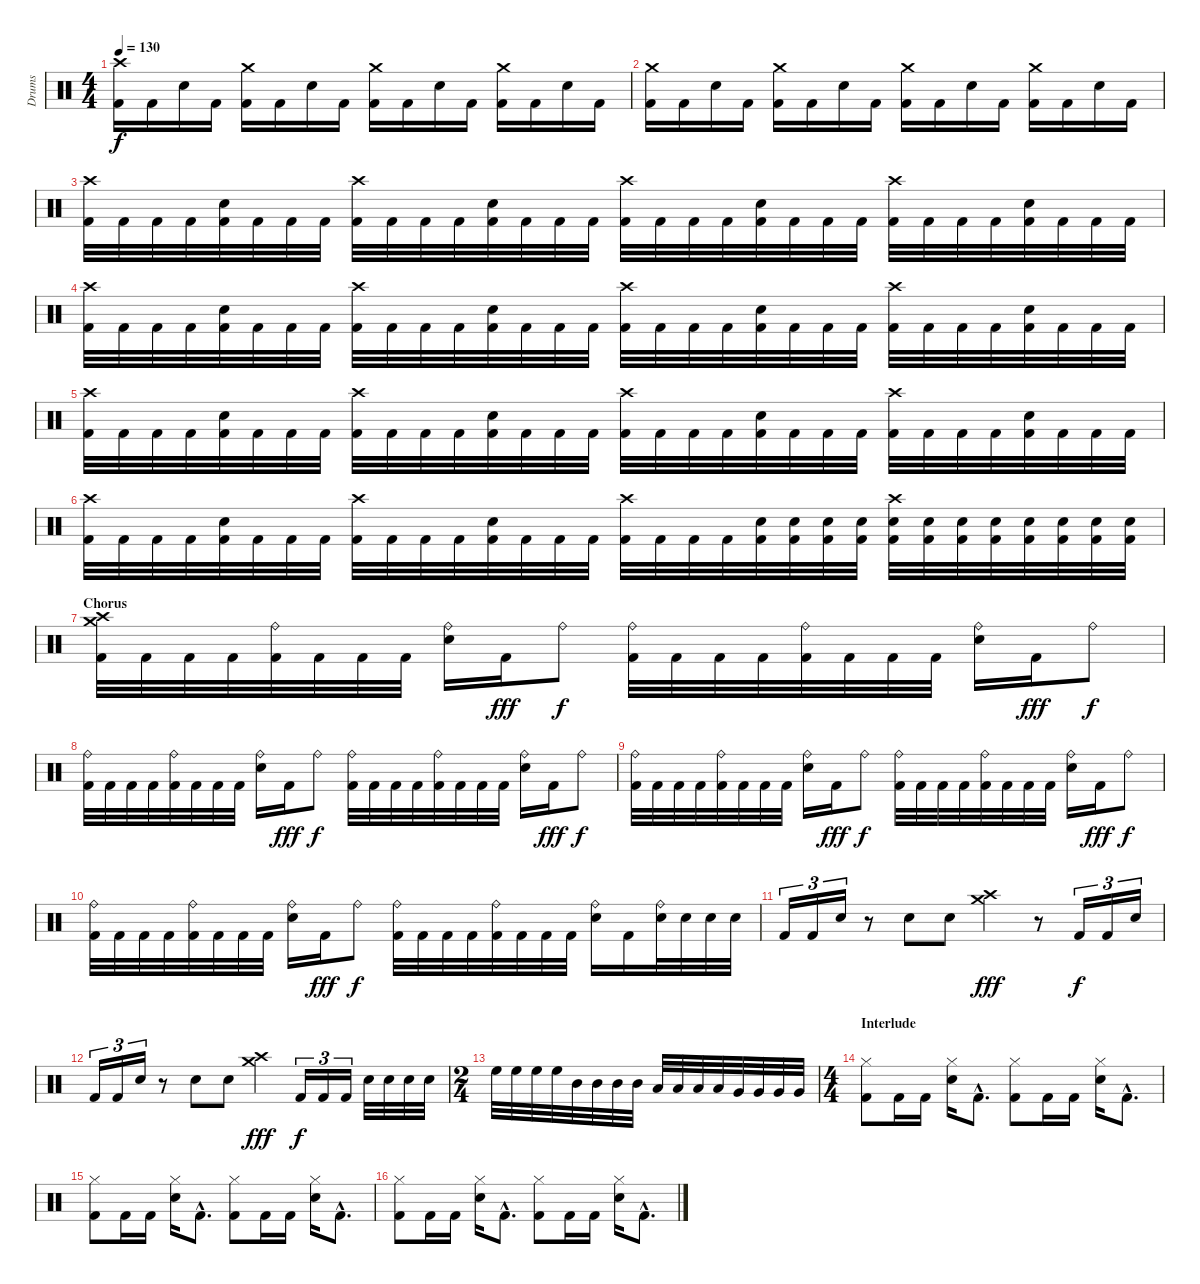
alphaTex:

\track ("Drums" "Drums") {instrument percussion}
\staff {score}
\articulation defaults
\ts (4 4)
\tempo 130
\clef neutral
\ks c
("Crash high (hit)" "Kick (hit) 2").16{dy f} "Kick (hit) 2".16 "Electric Snare (hit)".16 "Kick (hit) 2".16 ("Crash medium (hit)" "Kick (hit) 2").16 "Kick (hit) 2".16 "Electric Snare (hit)".16 "Kick (hit) 2".16 ("Crash medium (hit)" "Kick (hit) 2").16 "Kick (hit) 2".16 "Electric Snare (hit)".16 "Kick (hit) 2".16 ("Crash medium (hit)" "Kick (hit) 2").16 "Kick (hit) 2".16 "Electric Snare (hit)".16 "Kick (hit) 2".16 |
("Crash medium (hit)" "Kick (hit) 2").16 "Kick (hit) 2".16 "Electric Snare (hit)".16 "Kick (hit) 2".16 ("Crash medium (hit)" "Kick (hit) 2").16 "Kick (hit) 2".16 "Electric Snare (hit)".16 "Kick (hit) 2".16 ("Crash medium (hit)" "Kick (hit) 2").16 "Kick (hit) 2".16 "Electric Snare (hit)".16 "Kick (hit) 2".16 ("Crash medium (hit)" "Kick (hit) 2").16 "Kick (hit) 2".16 "Electric Snare (hit)".16 "Kick (hit) 2".16 |
("Crash high (hit)" "Kick (hit) 2").32 "Kick (hit) 2".32 "Kick (hit) 2".32 "Kick (hit) 2".32 ("Electric Snare (hit)" "Kick (hit) 2").32 "Kick (hit) 2".32 "Kick (hit) 2".32 "Kick (hit) 2".32 ("Crash high (hit)" "Kick (hit) 2").32 "Kick (hit) 2".32 "Kick (hit) 2".32 "Kick (hit) 2".32 ("Electric Snare (hit)" "Kick (hit) 2").32 "Kick (hit) 2".32 "Kick (hit) 2".32 "Kick (hit) 2".32 ("Crash high (hit)" "Kick (hit) 2").32 "Kick (hit) 2".32 "Kick (hit) 2".32 "Kick (hit) 2".32 ("Electric Snare (hit)" "Kick (hit) 2").32 "Kick (hit) 2".32 "Kick (hit) 2".32 "Kick (hit) 2".32 ("Crash high (hit)" "Kick (hit) 2").32 "Kick (hit) 2".32 "Kick (hit) 2".32 "Kick (hit) 2".32 ("Electric Snare (hit)" "Kick (hit) 2").32 "Kick (hit) 2".32 "Kick (hit) 2".32 "Kick (hit) 2".32 |
("Crash high (hit)" "Kick (hit) 2").32 "Kick (hit) 2".32 "Kick (hit) 2".32 "Kick (hit) 2".32 ("Electric Snare (hit)" "Kick (hit) 2").32 "Kick (hit) 2".32 "Kick (hit) 2".32 "Kick (hit) 2".32 ("Crash high (hit)" "Kick (hit) 2").32 "Kick (hit) 2".32 "Kick (hit) 2".32 "Kick (hit) 2".32 ("Electric Snare (hit)" "Kick (hit) 2").32 "Kick (hit) 2".32 "Kick (hit) 2".32 "Kick (hit) 2".32 ("Crash high (hit)" "Kick (hit) 2").32 "Kick (hit) 2".32 "Kick (hit) 2".32 "Kick (hit) 2".32 ("Electric Snare (hit)" "Kick (hit) 2").32 "Kick (hit) 2".32 "Kick (hit) 2".32 "Kick (hit) 2".32 ("Crash high (hit)" "Kick (hit) 2").32 "Kick (hit) 2".32 "Kick (hit) 2".32 "Kick (hit) 2".32 ("Electric Snare (hit)" "Kick (hit) 2").32 "Kick (hit) 2".32 "Kick (hit) 2".32 "Kick (hit) 2".32 |
("Crash high (hit)" "Kick (hit) 2").32 "Kick (hit) 2".32 "Kick (hit) 2".32 "Kick (hit) 2".32 ("Electric Snare (hit)" "Kick (hit) 2").32 "Kick (hit) 2".32 "Kick (hit) 2".32 "Kick (hit) 2".32 ("Crash high (hit)" "Kick (hit) 2").32 "Kick (hit) 2".32 "Kick (hit) 2".32 "Kick (hit) 2".32 ("Electric Snare (hit)" "Kick (hit) 2").32 "Kick (hit) 2".32 "Kick (hit) 2".32 "Kick (hit) 2".32 ("Crash high (hit)" "Kick (hit) 2").32 "Kick (hit) 2".32 "Kick (hit) 2".32 "Kick (hit) 2".32 ("Electric Snare (hit)" "Kick (hit) 2").32 "Kick (hit) 2".32 "Kick (hit) 2".32 "Kick (hit) 2".32 ("Crash high (hit)" "Kick (hit) 2").32 "Kick (hit) 2".32 "Kick (hit) 2".32 "Kick (hit) 2".32 ("Electric Snare (hit)" "Kick (hit) 2").32 "Kick (hit) 2".32 "Kick (hit) 2".32 "Kick (hit) 2".32 |
("Crash high (hit)" "Kick (hit) 2").32 "Kick (hit) 2".32 "Kick (hit) 2".32 "Kick (hit) 2".32 ("Electric Snare (hit)" "Kick (hit) 2").32 "Kick (hit) 2".32 "Kick (hit) 2".32 "Kick (hit) 2".32 ("Crash high (hit)" "Kick (hit) 2").32 "Kick (hit) 2".32 "Kick (hit) 2".32 "Kick (hit) 2".32 ("Electric Snare (hit)" "Kick (hit) 2").32 "Kick (hit) 2".32 "Kick (hit) 2".32 "Kick (hit) 2".32 ("Crash high (hit)" "Kick (hit) 2").32 "Kick (hit) 2".32 "Kick (hit) 2".32 "Kick (hit) 2".32 ("Electric Snare (hit)" "Kick (hit) 2").32 ("Electric Snare (hit)" "Kick (hit) 2").32 ("Electric Snare (hit)" "Kick (hit) 2").32 ("Electric Snare (hit)" "Kick (hit) 2").32 ("Crash high (hit)" "Electric Snare (hit)" "Kick (hit) 2").32 ("Electric Snare (hit)" "Kick (hit) 2").32 ("Electric Snare (hit)" "Kick (hit) 2").32 ("Electric Snare (hit)" "Kick (hit) 2").32 ("Electric Snare (hit)" "Kick (hit) 2").32 ("Electric Snare (hit)" "Kick (hit) 2").32 ("Electric Snare (hit)" "Kick (hit) 2").32 ("Electric Snare (hit)" "Kick (hit) 2").32 |
\section ("" "Chorus")
("Crash medium (hit)" "Crash high (hit)" "Kick (hit) 2").32 "Kick (hit) 2".32 "Kick (hit) 2".32 "Kick (hit) 2".32 ("Ride (bell)" "Kick (hit) 2").32 "Kick (hit) 2".32 "Kick (hit) 2".32 "Kick (hit) 2".32 ("Ride (bell)" "Electric Snare (hit)").16 "Kick (hit) 2".16{dy fff} "Ride (bell)".8{dy f} ("Ride (bell)" "Kick (hit) 2").32 "Kick (hit) 2".32 "Kick (hit) 2".32 "Kick (hit) 2".32 ("Ride (bell)" "Kick (hit) 2").32 "Kick (hit) 2".32 "Kick (hit) 2".32 "Kick (hit) 2".32 ("Ride (bell)" "Electric Snare (hit)").16 "Kick (hit) 2".16{dy fff} "Ride (bell)".8{dy f} |
("Ride (bell)" "Kick (hit) 2").32 "Kick (hit) 2".32 "Kick (hit) 2".32 "Kick (hit) 2".32 ("Ride (bell)" "Kick (hit) 2").32 "Kick (hit) 2".32 "Kick (hit) 2".32 "Kick (hit) 2".32 ("Ride (bell)" "Electric Snare (hit)").16 "Kick (hit) 2".16{dy fff} "Ride (bell)".8{dy f} ("Ride (bell)" "Kick (hit) 2").32 "Kick (hit) 2".32 "Kick (hit) 2".32 "Kick (hit) 2".32 ("Ride (bell)" "Kick (hit) 2").32 "Kick (hit) 2".32 "Kick (hit) 2".32 "Kick (hit) 2".32 ("Ride (bell)" "Electric Snare (hit)").16 "Kick (hit) 2".16{dy fff} "Ride (bell)".8{dy f} |
("Ride (bell)" "Kick (hit) 2").32 "Kick (hit) 2".32 "Kick (hit) 2".32 "Kick (hit) 2".32 ("Ride (bell)" "Kick (hit) 2").32 "Kick (hit) 2".32 "Kick (hit) 2".32 "Kick (hit) 2".32 ("Ride (bell)" "Electric Snare (hit)").16 "Kick (hit) 2".16{dy fff} "Ride (bell)".8{dy f} ("Ride (bell)" "Kick (hit) 2").32 "Kick (hit) 2".32 "Kick (hit) 2".32 "Kick (hit) 2".32 ("Ride (bell)" "Kick (hit) 2").32 "Kick (hit) 2".32 "Kick (hit) 2".32 "Kick (hit) 2".32 ("Ride (bell)" "Electric Snare (hit)").16 "Kick (hit) 2".16{dy fff} "Ride (bell)".8{dy f} |
("Ride (bell)" "Kick (hit) 2").32 "Kick (hit) 2".32 "Kick (hit) 2".32 "Kick (hit) 2".32 ("Ride (bell)" "Kick (hit) 2").32 "Kick (hit) 2".32 "Kick (hit) 2".32 "Kick (hit) 2".32 ("Ride (bell)" "Electric Snare (hit)").16 "Kick (hit) 2".16{dy fff} "Ride (bell)".8{dy f} ("Ride (bell)" "Kick (hit) 2").32 "Kick (hit) 2".32 "Kick (hit) 2".32 "Kick (hit) 2".32 ("Ride (bell)" "Kick (hit) 2").32 "Kick (hit) 2".32 "Kick (hit) 2".32 "Kick (hit) 2".32 ("Ride (bell)" "Electric Snare (hit)").16 "Kick (hit) 2".16 ("Ride (bell)" "Electric Snare (hit)").32 "Electric Snare (hit)".32 "Electric Snare (hit)".32 "Electric Snare (hit)".32 |
"Kick (hit) 2".16{tu (3 2)} "Kick (hit) 2".16{tu (3 2)} "Electric Snare (hit)".16{tu (3 2)} r.8 "Electric Snare (hit)".8 "Electric Snare (hit)".8 ("Crash medium (hit)" "Crash high (hit)").4{dy fff} r.8 "Kick (hit) 2".16{tu (3 2) dy f} "Kick (hit) 2".16{tu (3 2)} "Electric Snare (hit)".16{tu (3 2)} |
"Kick (hit) 2".16{tu (3 2)} "Kick (hit) 2".16{tu (3 2)} "Electric Snare (hit)".16{tu (3 2)} r.8 "Electric Snare (hit)".8 "Electric Snare (hit)".8 ("Crash medium (hit)" "Crash high (hit)").4{dy fff} "Kick (hit) 2".16{tu (3 2) dy f} "Kick (hit) 2".16{tu (3 2)} "Kick (hit) 2".16{tu (3 2)} "Electric Snare (hit)".32 "Electric Snare (hit)".32 "Electric Snare (hit)".32 "Electric Snare (hit)".32 |
\ts (2 4)
"High Floor Tom (hit)".32 "High Floor Tom (hit)".32 "High Floor Tom (hit)".32 "High Floor Tom (hit)".32 "Mid Tom (hit)".32 "Mid Tom (hit)".32 "Mid Tom (hit)".32 "Mid Tom (hit)".32 "Low Tom (hit)".32 "Low Tom (hit)".32 "Low Tom (hit)".32 "Low Tom (hit)".32 "Very Low Tom (hit)".32 "Very Low Tom (hit)".32 "Very Low Tom (hit)".32 "Very Low Tom (hit)".32 |
\ts (4 4)
\section ("" "Interlude")
("Hi-Hat (closed)" "Kick (hit) 2").8 "Kick (hit) 2".16 "Kick (hit) 2".16 ("Hi-Hat (closed)" "Electric Snare (hit)").16 "Kick (hit) 2"{hac}.8{d} ("Hi-Hat (closed)" "Kick (hit) 2").8 "Kick (hit) 2".16 "Kick (hit) 2".16 ("Hi-Hat (closed)" "Electric Snare (hit)").16 "Kick (hit) 2"{hac}.8{d} |
("Hi-Hat (closed)" "Kick (hit) 2").8 "Kick (hit) 2".16 "Kick (hit) 2".16 ("Hi-Hat (closed)" "Electric Snare (hit)").16 "Kick (hit) 2"{hac}.8{d} ("Hi-Hat (closed)" "Kick (hit) 2").8 "Kick (hit) 2".16 "Kick (hit) 2".16 ("Hi-Hat (closed)" "Electric Snare (hit)").16 "Kick (hit) 2"{hac}.8{d} |
("Hi-Hat (closed)" "Kick (hit) 2").8 "Kick (hit) 2".16 "Kick (hit) 2".16 ("Hi-Hat (closed)" "Electric Snare (hit)").16 "Kick (hit) 2"{hac}.8{d} ("Hi-Hat (closed)" "Kick (hit) 2").8 "Kick (hit) 2".16 "Kick (hit) 2".16 ("Hi-Hat (closed)" "Electric Snare (hit)").16 "Kick (hit) 2"{hac}.8{d}
